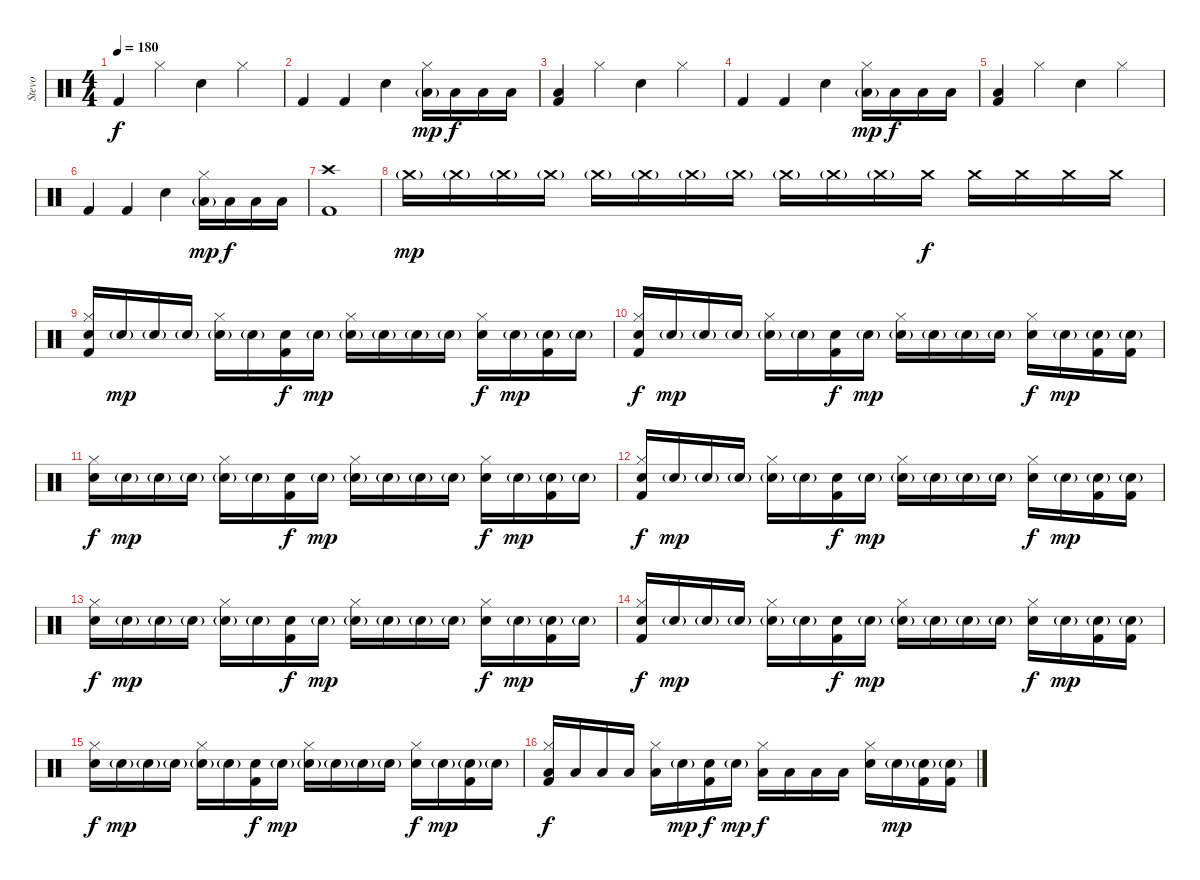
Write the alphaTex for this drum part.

\track ("Stevo" "Stevo") {instrument percussion}
\staff {score}
\articulation defaults
\ts (4 4)
\tempo 180
\clef neutral
\ks c "Kick (hit) 2".4{dy f} "Hi-Hat (closed)".4 "Snare (hit) 2".4 "Hi-Hat (closed)".4
|
"Kick (hit) 2".4 "Kick (hit) 2".4 "Snare (hit) 2".4 ("Low Floor Tom (hit)"{g} "Hi-Hat (closed)").16{dy mp} "Low Floor Tom (hit)".16{dy f} "Low Floor Tom (hit)".16 "Low Floor Tom (hit)".16 |
("Low Floor Tom (hit)" "Kick (hit) 2").4 "Hi-Hat (closed)".4 "Snare (hit) 2".4 "Hi-Hat (closed)".4 |
"Kick (hit) 2".4 "Kick (hit) 2".4 "Snare (hit) 2".4 ("Low Floor Tom (hit)"{g} "Hi-Hat (closed)").16{dy mp} "Low Floor Tom (hit)".16{dy f} "Low Floor Tom (hit)".16 "Low Floor Tom (hit)".16 |
("Low Floor Tom (hit)" "Kick (hit) 2").4 "Hi-Hat (closed)".4 "Snare (hit) 2".4 "Hi-Hat (closed)".4 |
"Kick (hit) 2".4 "Kick (hit) 2".4 "Snare (hit) 2".4 ("Low Floor Tom (hit)"{g} "Hi-Hat (closed)").16{dy mp} "Low Floor Tom (hit)".16{dy f} "Low Floor Tom (hit)".16 "Low Floor Tom (hit)".16 |
("Crash high (hit)" "Kick (hit) 2").1 |
"Crash medium (hit)"{g}.16{dy mp} "Crash medium (hit)"{g}.16 "Crash medium (hit)"{g}.16 "Crash medium (hit)"{g}.16 "Crash medium (hit)"{g}.16 "Crash medium (hit)"{g}.16 "Crash medium (hit)"{g}.16 "Crash medium (hit)"{g}.16 "Crash medium (hit)"{g}.16 "Crash medium (hit)"{g}.16 "Crash medium (hit)"{g}.16 "Crash medium (hit)".16{dy f} "Crash medium (hit)".16 "Crash medium (hit)".16 "Crash medium (hit)".16 "Crash medium (hit)".16 |
("Hi-Hat (closed)" "Electric Snare (hit)" "Kick (hit) 2").16 "Electric Snare (hit)"{g}.16{dy mp} "Electric Snare (hit)"{g}.16 "Electric Snare (hit)"{g}.16 ("Hi-Hat (closed)" "Electric Snare (hit)"{g}).16 "Electric Snare (hit)"{g}.16 ("Electric Snare (hit)" "Kick (hit) 2").16{dy f} "Electric Snare (hit)"{g}.16{dy mp} ("Hi-Hat (closed)" "Electric Snare (hit)"{g}).16 "Electric Snare (hit)"{g}.16 "Electric Snare (hit)"{g}.16 "Electric Snare (hit)"{g}.16 ("Hi-Hat (closed)" "Electric Snare (hit)").16{dy f} "Electric Snare (hit)"{g}.16{dy mp} ("Electric Snare (hit)"{g} "Kick (hit) 2").16 "Electric Snare (hit)"{g}.16 |
("Hi-Hat (closed)" "Electric Snare (hit)" "Kick (hit) 2").16{dy f} "Electric Snare (hit)"{g}.16{dy mp} "Electric Snare (hit)"{g}.16 "Electric Snare (hit)"{g}.16 ("Hi-Hat (closed)" "Electric Snare (hit)"{g}).16 "Electric Snare (hit)"{g}.16 ("Electric Snare (hit)" "Kick (hit) 2").16{dy f} "Electric Snare (hit)"{g}.16{dy mp} ("Hi-Hat (closed)" "Electric Snare (hit)"{g}).16 "Electric Snare (hit)"{g}.16 "Electric Snare (hit)"{g}.16 "Electric Snare (hit)"{g}.16 ("Hi-Hat (closed)" "Electric Snare (hit)").16{dy f} "Electric Snare (hit)"{g}.16{dy mp} ("Electric Snare (hit)"{g} "Kick (hit) 2").16 ("Electric Snare (hit)"{g} "Kick (hit) 2").16 |
("Hi-Hat (closed)" "Electric Snare (hit)").16{dy f} "Electric Snare (hit)"{g}.16{dy mp} "Electric Snare (hit)"{g}.16 "Electric Snare (hit)"{g}.16 ("Hi-Hat (closed)" "Electric Snare (hit)"{g}).16 "Electric Snare (hit)"{g}.16 ("Electric Snare (hit)" "Kick (hit) 2").16{dy f} "Electric Snare (hit)"{g}.16{dy mp} ("Hi-Hat (closed)" "Electric Snare (hit)"{g}).16 "Electric Snare (hit)"{g}.16 "Electric Snare (hit)"{g}.16 "Electric Snare (hit)"{g}.16 ("Hi-Hat (closed)" "Electric Snare (hit)").16{dy f} "Electric Snare (hit)"{g}.16{dy mp} ("Electric Snare (hit)"{g} "Kick (hit) 2").16 "Electric Snare (hit)"{g}.16 |
("Hi-Hat (closed)" "Electric Snare (hit)" "Kick (hit) 2").16{dy f} "Electric Snare (hit)"{g}.16{dy mp} "Electric Snare (hit)"{g}.16 "Electric Snare (hit)"{g}.16 ("Hi-Hat (closed)" "Electric Snare (hit)"{g}).16 "Electric Snare (hit)"{g}.16 ("Electric Snare (hit)" "Kick (hit) 2").16{dy f} "Electric Snare (hit)"{g}.16{dy mp} ("Hi-Hat (closed)" "Electric Snare (hit)"{g}).16 "Electric Snare (hit)"{g}.16 "Electric Snare (hit)"{g}.16 "Electric Snare (hit)"{g}.16 ("Hi-Hat (closed)" "Electric Snare (hit)").16{dy f} "Electric Snare (hit)"{g}.16{dy mp} ("Electric Snare (hit)"{g} "Kick (hit) 2").16 ("Electric Snare (hit)"{g} "Kick (hit) 2").16 |
("Hi-Hat (closed)" "Electric Snare (hit)").16{dy f} "Electric Snare (hit)"{g}.16{dy mp} "Electric Snare (hit)"{g}.16 "Electric Snare (hit)"{g}.16 ("Hi-Hat (closed)" "Electric Snare (hit)"{g}).16 "Electric Snare (hit)"{g}.16 ("Electric Snare (hit)" "Kick (hit) 2").16{dy f} "Electric Snare (hit)"{g}.16{dy mp} ("Hi-Hat (closed)" "Electric Snare (hit)"{g}).16 "Electric Snare (hit)"{g}.16 "Electric Snare (hit)"{g}.16 "Electric Snare (hit)"{g}.16 ("Hi-Hat (closed)" "Electric Snare (hit)").16{dy f} "Electric Snare (hit)"{g}.16{dy mp} ("Electric Snare (hit)"{g} "Kick (hit) 2").16 "Electric Snare (hit)"{g}.16 |
("Hi-Hat (closed)" "Electric Snare (hit)" "Kick (hit) 2").16{dy f} "Electric Snare (hit)"{g}.16{dy mp} "Electric Snare (hit)"{g}.16 "Electric Snare (hit)"{g}.16 ("Hi-Hat (closed)" "Electric Snare (hit)"{g}).16 "Electric Snare (hit)"{g}.16 ("Electric Snare (hit)" "Kick (hit) 2").16{dy f} "Electric Snare (hit)"{g}.16{dy mp} ("Hi-Hat (closed)" "Electric Snare (hit)"{g}).16 "Electric Snare (hit)"{g}.16 "Electric Snare (hit)"{g}.16 "Electric Snare (hit)"{g}.16 ("Hi-Hat (closed)" "Electric Snare (hit)").16{dy f} "Electric Snare (hit)"{g}.16{dy mp} ("Electric Snare (hit)"{g} "Kick (hit) 2").16 ("Electric Snare (hit)"{g} "Kick (hit) 2").16 |
("Hi-Hat (closed)" "Electric Snare (hit)").16{dy f} "Electric Snare (hit)"{g}.16{dy mp} "Electric Snare (hit)"{g}.16 "Electric Snare (hit)"{g}.16 ("Hi-Hat (closed)" "Electric Snare (hit)"{g}).16 "Electric Snare (hit)"{g}.16 ("Electric Snare (hit)" "Kick (hit) 2").16{dy f} "Electric Snare (hit)"{g}.16{dy mp} ("Hi-Hat (closed)" "Electric Snare (hit)"{g}).16 "Electric Snare (hit)"{g}.16 "Electric Snare (hit)"{g}.16 "Electric Snare (hit)"{g}.16 ("Hi-Hat (closed)" "Electric Snare (hit)").16{dy f} "Electric Snare (hit)"{g}.16{dy mp} ("Electric Snare (hit)"{g} "Kick (hit) 2").16 "Electric Snare (hit)"{g}.16 |
("Hi-Hat (closed)" "Low Floor Tom (hit)" "Kick (hit) 2").16{dy f} "Low Floor Tom (hit)".16 "Low Floor Tom (hit)".16 "Low Floor Tom (hit)".16 ("Hi-Hat (closed)" "Low Floor Tom (hit)").16 "Electric Snare (hit)"{g}.16{dy mp} ("Electric Snare (hit)" "Kick (hit) 2").16{dy f} "Electric Snare (hit)"{g}.16{dy mp} ("Hi-Hat (closed)" "Low Floor Tom (hit)").16{dy f} "Low Floor Tom (hit)".16 "Low Floor Tom (hit)".16 "Low Floor Tom (hit)".16 ("Hi-Hat (closed)" "Electric Snare (hit)").16 "Electric Snare (hit)"{g}.16{dy mp} ("Electric Snare (hit)"{g} "Kick (hit) 2").16 ("Electric Snare (hit)"{g} "Kick (hit) 2").16
